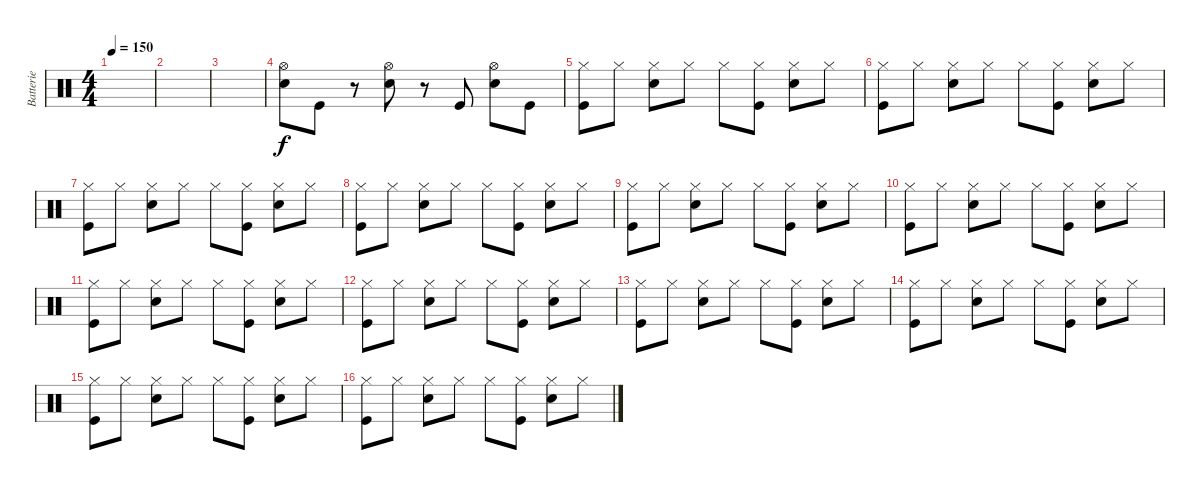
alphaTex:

\track ("Batterie" "Batterie") {instrument percussion}
\staff {score}
\articulation defaults
\ts (4 4)
\tempo 150
\clef neutral
\ks c
|
|
|
("Hi-Hat (open)" "Snare (hit) 2").8 "Kick (hit)".8 r.8 ("Hi-Hat (open)" "Snare (hit) 2").8 r.8 "Kick (hit)".8 ("Hi-Hat (open)" "Snare (hit) 2").8 "Kick (hit)".8 |
("Hi-Hat (closed)" "Kick (hit)").8 "Hi-Hat (closed)".8 ("Hi-Hat (closed)" "Snare (hit) 2").8 "Hi-Hat (closed)".8 "Hi-Hat (closed)".8 ("Hi-Hat (closed)" "Kick (hit)").8 ("Hi-Hat (closed)" "Snare (hit) 2").8 "Hi-Hat (closed)".8 |
("Hi-Hat (closed)" "Kick (hit)").8 "Hi-Hat (closed)".8 ("Hi-Hat (closed)" "Snare (hit) 2").8 "Hi-Hat (closed)".8 "Hi-Hat (closed)".8 ("Hi-Hat (closed)" "Kick (hit)").8 ("Hi-Hat (closed)" "Snare (hit) 2").8 "Hi-Hat (closed)".8 |
("Hi-Hat (closed)" "Kick (hit)").8 "Hi-Hat (closed)".8 ("Hi-Hat (closed)" "Snare (hit) 2").8 "Hi-Hat (closed)".8 "Hi-Hat (closed)".8 ("Hi-Hat (closed)" "Kick (hit)").8 ("Hi-Hat (closed)" "Snare (hit) 2").8 "Hi-Hat (closed)".8 |
("Hi-Hat (closed)" "Kick (hit)").8 "Hi-Hat (closed)".8 ("Hi-Hat (closed)" "Snare (hit) 2").8 "Hi-Hat (closed)".8 "Hi-Hat (closed)".8 ("Hi-Hat (closed)" "Kick (hit)").8 ("Hi-Hat (closed)" "Snare (hit) 2").8 "Hi-Hat (closed)".8 |
("Hi-Hat (closed)" "Kick (hit)").8 "Hi-Hat (closed)".8 ("Hi-Hat (closed)" "Snare (hit) 2").8 "Hi-Hat (closed)".8 "Hi-Hat (closed)".8 ("Hi-Hat (closed)" "Kick (hit)").8 ("Hi-Hat (closed)" "Snare (hit) 2").8 "Hi-Hat (closed)".8 |
("Hi-Hat (closed)" "Kick (hit)").8 "Hi-Hat (closed)".8 ("Hi-Hat (closed)" "Snare (hit) 2").8 "Hi-Hat (closed)".8 "Hi-Hat (closed)".8 ("Hi-Hat (closed)" "Kick (hit)").8 ("Hi-Hat (closed)" "Snare (hit) 2").8 "Hi-Hat (closed)".8 |
("Hi-Hat (closed)" "Kick (hit)").8 "Hi-Hat (closed)".8 ("Hi-Hat (closed)" "Snare (hit) 2").8 "Hi-Hat (closed)".8 "Hi-Hat (closed)".8 ("Hi-Hat (closed)" "Kick (hit)").8 ("Hi-Hat (closed)" "Snare (hit) 2").8 "Hi-Hat (closed)".8 |
("Hi-Hat (closed)" "Kick (hit)").8 "Hi-Hat (closed)".8 ("Hi-Hat (closed)" "Snare (hit) 2").8 "Hi-Hat (closed)".8 "Hi-Hat (closed)".8 ("Hi-Hat (closed)" "Kick (hit)").8 ("Hi-Hat (closed)" "Snare (hit) 2").8 "Hi-Hat (closed)".8 |
("Hi-Hat (closed)" "Kick (hit)").8 "Hi-Hat (closed)".8 ("Hi-Hat (closed)" "Snare (hit) 2").8 "Hi-Hat (closed)".8 "Hi-Hat (closed)".8 ("Hi-Hat (closed)" "Kick (hit)").8 ("Hi-Hat (closed)" "Snare (hit) 2").8 "Hi-Hat (closed)".8 |
("Hi-Hat (closed)" "Kick (hit)").8 "Hi-Hat (closed)".8 ("Hi-Hat (closed)" "Snare (hit) 2").8 "Hi-Hat (closed)".8 "Hi-Hat (closed)".8 ("Hi-Hat (closed)" "Kick (hit)").8 ("Hi-Hat (closed)" "Snare (hit) 2").8 "Hi-Hat (closed)".8 |
("Hi-Hat (closed)" "Kick (hit)").8 "Hi-Hat (closed)".8 ("Hi-Hat (closed)" "Snare (hit) 2").8 "Hi-Hat (closed)".8 "Hi-Hat (closed)".8 ("Hi-Hat (closed)" "Kick (hit)").8 ("Hi-Hat (closed)" "Snare (hit) 2").8 "Hi-Hat (closed)".8 |
("Hi-Hat (closed)" "Kick (hit)").8 "Hi-Hat (closed)".8 ("Hi-Hat (closed)" "Snare (hit) 2").8 "Hi-Hat (closed)".8 "Hi-Hat (closed)".8 ("Hi-Hat (closed)" "Kick (hit)").8 ("Hi-Hat (closed)" "Snare (hit) 2").8 "Hi-Hat (closed)".8
